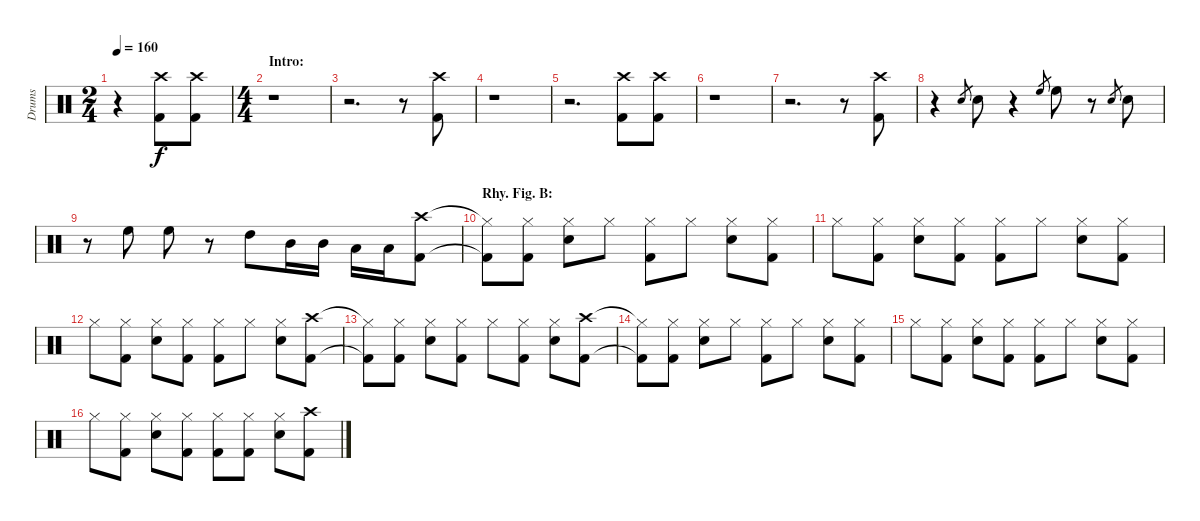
\track ("Drums" "Drums") {instrument percussion}
\staff {score}
\articulation defaults
\ts (2 4)
\tempo 160
\clef neutral
\ks c
r.4{dy f} ("Crash high (hit)" "Kick (hit) 2").8 ("Crash high (hit)" "Kick (hit) 2").8 |
\ts (4 4)
\section ("" "Intro:")
r.1 |
r.2{d} r.8 ("Crash high (hit)" "Kick (hit) 2").8 |
r.1 |
r.2{d} ("Crash high (hit)" "Kick (hit) 2").8 ("Crash high (hit)" "Kick (hit) 2").8 |
r.1 |
r.2{d} r.8 ("Crash high (hit)" "Kick (hit) 2").8 |
r.4 "Electric Snare (hit)".8{gr} "Electric Snare (hit)".8 r.4 "High Floor Tom (hit)".8{gr} "High Floor Tom (hit)".8 r.8 "Electric Snare (hit)".8{gr} "Electric Snare (hit)".8 |
r.8 "High Floor Tom (hit)".8 "High Floor Tom (hit)".8 r.8 "High Tom (hit)".8 "Mid Tom (hit)".16 "Mid Tom (hit)".16 "Low Tom (hit)".16 "Low Tom (hit)".16 ("Crash high (hit)" "Kick (hit) 2").8 |
\section ("" "Rhy. Fig. B:")
("Hi-Hat (closed)"{t} "Kick (hit) 2"{t}).8 ("Hi-Hat (closed)" "Kick (hit) 2").8 ("Hi-Hat (closed)" "Electric Snare (hit)").8 "Hi-Hat (closed)".8 ("Hi-Hat (closed)" "Kick (hit) 2").8 "Hi-Hat (closed)".8 ("Hi-Hat (closed)" "Electric Snare (hit)").8 ("Hi-Hat (closed)" "Kick (hit) 2").8 |
"Hi-Hat (closed)".8 ("Hi-Hat (closed)" "Kick (hit) 2").8 ("Hi-Hat (closed)" "Electric Snare (hit)").8 ("Hi-Hat (closed)" "Kick (hit) 2").8 ("Hi-Hat (closed)" "Kick (hit) 2").8 "Hi-Hat (closed)".8 ("Hi-Hat (closed)" "Electric Snare (hit)").8 ("Hi-Hat (closed)" "Kick (hit) 2").8 |
"Hi-Hat (closed)".8 ("Hi-Hat (closed)" "Kick (hit) 2").8 ("Hi-Hat (closed)" "Electric Snare (hit)").8 ("Hi-Hat (closed)" "Kick (hit) 2").8 ("Hi-Hat (closed)" "Kick (hit) 2").8 "Hi-Hat (closed)".8 ("Hi-Hat (closed)" "Electric Snare (hit)").8 ("Crash high (hit)" "Kick (hit) 2").8 |
("Hi-Hat (closed)"{t} "Kick (hit) 2"{t}).8 ("Hi-Hat (closed)" "Kick (hit) 2").8 ("Hi-Hat (closed)" "Electric Snare (hit)").8 ("Hi-Hat (closed)" "Kick (hit) 2").8 "Hi-Hat (closed)".8 ("Hi-Hat (closed)" "Kick (hit) 2").8 ("Hi-Hat (closed)" "Electric Snare (hit)").8 ("Crash high (hit)" "Kick (hit) 2").8 |
("Hi-Hat (closed)"{t} "Kick (hit) 2"{t}).8 ("Hi-Hat (closed)" "Kick (hit) 2").8 ("Hi-Hat (closed)" "Electric Snare (hit)").8 "Hi-Hat (closed)".8 ("Hi-Hat (closed)" "Kick (hit) 2").8 "Hi-Hat (closed)".8 ("Hi-Hat (closed)" "Electric Snare (hit)").8 ("Hi-Hat (closed)" "Kick (hit) 2").8 |
"Hi-Hat (closed)".8 ("Hi-Hat (closed)" "Kick (hit) 2").8 ("Hi-Hat (closed)" "Electric Snare (hit)").8 ("Hi-Hat (closed)" "Kick (hit) 2").8 ("Hi-Hat (closed)" "Kick (hit) 2").8 "Hi-Hat (closed)".8 ("Hi-Hat (closed)" "Electric Snare (hit)").8 ("Hi-Hat (closed)" "Kick (hit) 2").8 |
"Hi-Hat (closed)".8 ("Hi-Hat (closed)" "Kick (hit) 2").8 ("Hi-Hat (closed)" "Electric Snare (hit)").8 ("Hi-Hat (closed)" "Kick (hit) 2").8 ("Hi-Hat (closed)" "Kick (hit) 2").8 ("Hi-Hat (closed)" "Kick (hit) 2").8 ("Hi-Hat (closed)" "Electric Snare (hit)").8 ("Crash high (hit)" "Kick (hit) 2").8
